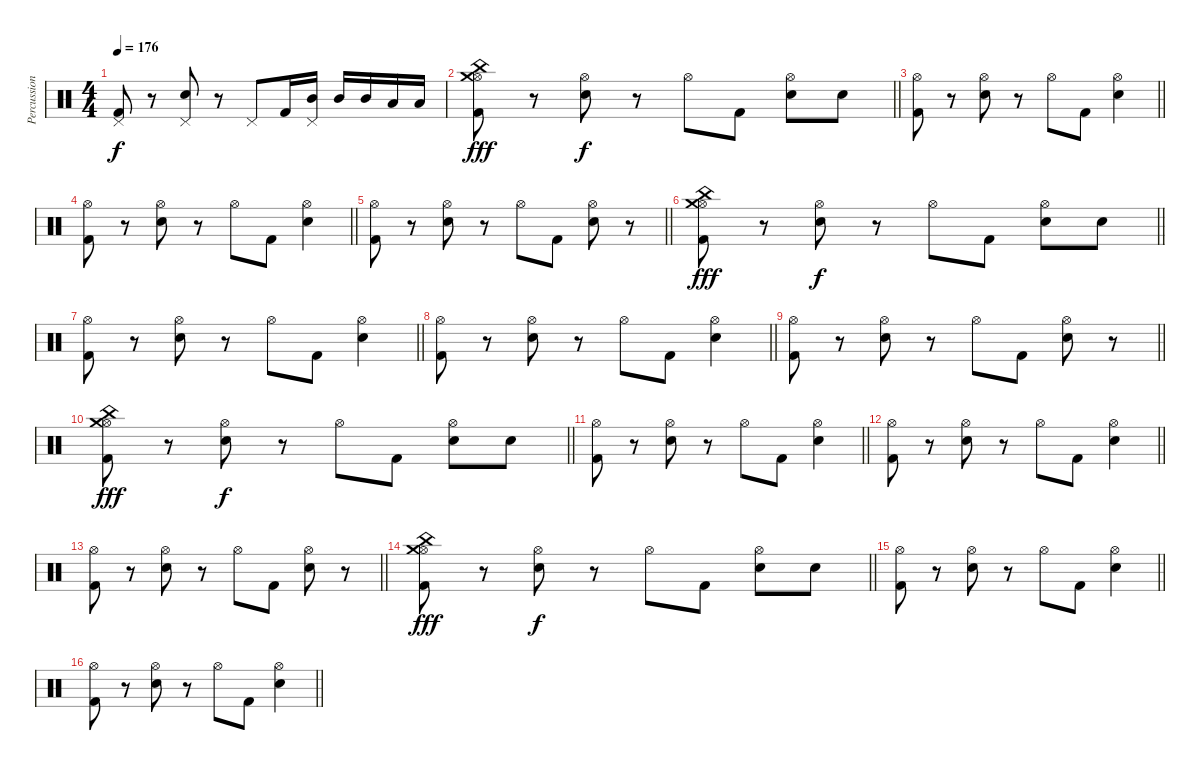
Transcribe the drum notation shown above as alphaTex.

\track ("Percussions" "Percussion") {instrument percussion}
\staff {score}
\articulation defaults
\ts (4 4)
\tempo 176
\clef neutral
\ks c
("Pedal Hi-Hat (hit)" "Kick (hit) 2").8{dy f} r.8 ("Pedal Hi-Hat (hit)" "Snare (hit) 2").8 r.8 "Pedal Hi-Hat (hit)".8 "Kick (hit) 2".16 ("Pedal Hi-Hat (hit)" "Mid Tom (hit)").16 "Mid Tom (hit)".16 "Mid Tom (hit)".16 "Low Tom (hit)".16 "Low Tom (hit)".16 |
\barLineRight lightlight
("Hi-Hat (open)" "Kick (hit) 2" "Crash medium (hit)" "China (hit)").8{dy fff} r.8 ("Hi-Hat (open)" "Snare (hit) 2").8{dy f} r.8 "Hi-Hat (open)".8 "Kick (hit) 2".8 ("Hi-Hat (open)" "Snare (hit) 2").8 "Snare (hit) 2".8 |
\barLineRight lightlight
("Hi-Hat (open)" "Kick (hit) 2").8 r.8 ("Hi-Hat (open)" "Snare (hit) 2").8 r.8 "Hi-Hat (open)".8 "Kick (hit) 2".8 ("Hi-Hat (open)" "Snare (hit) 2").4 |
\barLineRight lightlight
("Hi-Hat (open)" "Kick (hit) 2").8 r.8 ("Hi-Hat (open)" "Snare (hit) 2").8 r.8 "Hi-Hat (open)".8 "Kick (hit) 2".8 ("Hi-Hat (open)" "Snare (hit) 2").4 |
\barLineRight lightlight
("Hi-Hat (open)" "Kick (hit) 2").8 r.8 ("Hi-Hat (open)" "Snare (hit) 2").8 r.8 "Hi-Hat (open)".8 "Kick (hit) 2".8 ("Hi-Hat (open)" "Snare (hit) 2").8 r.8 |
\barLineRight lightlight
("Hi-Hat (open)" "Kick (hit) 2" "Crash medium (hit)" "China (hit)").8{dy fff} r.8 ("Hi-Hat (open)" "Snare (hit) 2").8{dy f} r.8 "Hi-Hat (open)".8 "Kick (hit) 2".8 ("Hi-Hat (open)" "Snare (hit) 2").8 "Snare (hit) 2".8 |
\barLineRight lightlight
("Hi-Hat (open)" "Kick (hit) 2").8 r.8 ("Hi-Hat (open)" "Snare (hit) 2").8 r.8 "Hi-Hat (open)".8 "Kick (hit) 2".8 ("Hi-Hat (open)" "Snare (hit) 2").4 |
\barLineRight lightlight
("Hi-Hat (open)" "Kick (hit) 2").8 r.8 ("Hi-Hat (open)" "Snare (hit) 2").8 r.8 "Hi-Hat (open)".8 "Kick (hit) 2".8 ("Hi-Hat (open)" "Snare (hit) 2").4 |
\barLineRight lightlight
("Hi-Hat (open)" "Kick (hit) 2").8 r.8 ("Hi-Hat (open)" "Snare (hit) 2").8 r.8 "Hi-Hat (open)".8 "Kick (hit) 2".8 ("Hi-Hat (open)" "Snare (hit) 2").8 r.8 |
\barLineRight lightlight
("Hi-Hat (open)" "Kick (hit) 2" "Crash medium (hit)" "China (hit)").8{dy fff} r.8 ("Hi-Hat (open)" "Snare (hit) 2").8{dy f} r.8 "Hi-Hat (open)".8 "Kick (hit) 2".8 ("Hi-Hat (open)" "Snare (hit) 2").8 "Snare (hit) 2".8 |
\barLineRight lightlight
("Hi-Hat (open)" "Kick (hit) 2").8 r.8 ("Hi-Hat (open)" "Snare (hit) 2").8 r.8 "Hi-Hat (open)".8 "Kick (hit) 2".8 ("Hi-Hat (open)" "Snare (hit) 2").4 |
\barLineRight lightlight
("Hi-Hat (open)" "Kick (hit) 2").8 r.8 ("Hi-Hat (open)" "Snare (hit) 2").8 r.8 "Hi-Hat (open)".8 "Kick (hit) 2".8 ("Hi-Hat (open)" "Snare (hit) 2").4 |
\barLineRight lightlight
("Hi-Hat (open)" "Kick (hit) 2").8 r.8 ("Hi-Hat (open)" "Snare (hit) 2").8 r.8 "Hi-Hat (open)".8 "Kick (hit) 2".8 ("Hi-Hat (open)" "Snare (hit) 2").8 r.8 |
\barLineRight lightlight
("Hi-Hat (open)" "Kick (hit) 2" "Crash medium (hit)" "China (hit)").8{dy fff} r.8 ("Hi-Hat (open)" "Snare (hit) 2").8{dy f} r.8 "Hi-Hat (open)".8 "Kick (hit) 2".8 ("Hi-Hat (open)" "Snare (hit) 2").8 "Snare (hit) 2".8 |
\barLineRight lightlight
("Hi-Hat (open)" "Kick (hit) 2").8 r.8 ("Hi-Hat (open)" "Snare (hit) 2").8 r.8 "Hi-Hat (open)".8 "Kick (hit) 2".8 ("Hi-Hat (open)" "Snare (hit) 2").4 |
\barLineRight lightlight
("Hi-Hat (open)" "Kick (hit) 2").8 r.8 ("Hi-Hat (open)" "Snare (hit) 2").8 r.8 "Hi-Hat (open)".8 "Kick (hit) 2".8 ("Hi-Hat (open)" "Snare (hit) 2").4
